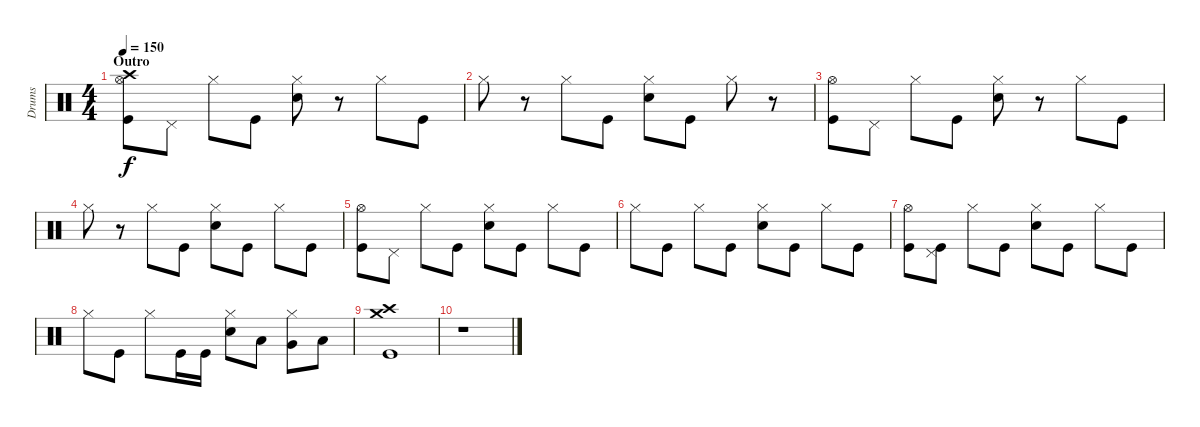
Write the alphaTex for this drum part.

\track ("Drums" "Drums") {instrument percussion}
\staff {score}
\articulation defaults
\ts (4 4)
\section ("" "Outro")
\tempo 150
\clef neutral
\ks c
("Kick (hit)" "Hi-Hat (open)" "Crash high (hit)").8{dy f} "Pedal Hi-Hat (hit)".8 "Hi-Hat (closed)".8 "Kick (hit)".8 ("Electric Snare (hit)" "Hi-Hat (closed)").8 r.8 "Hi-Hat (closed)".8 "Kick (hit)".8 |
"Hi-Hat (closed)".8 r.8 "Hi-Hat (closed)".8 "Kick (hit)".8 ("Electric Snare (hit)" "Hi-Hat (closed)").8 "Kick (hit)".8 "Hi-Hat (closed)".8 r.8 |
("Kick (hit)" "Hi-Hat (open)").8 "Pedal Hi-Hat (hit)".8 "Hi-Hat (closed)".8 "Kick (hit)".8 ("Electric Snare (hit)" "Hi-Hat (closed)").8 r.8 "Hi-Hat (closed)".8 "Kick (hit)".8 |
"Hi-Hat (closed)".8 r.8 "Hi-Hat (closed)".8 "Kick (hit)".8 ("Electric Snare (hit)" "Hi-Hat (closed)").8 "Kick (hit)".8 "Hi-Hat (closed)".8 "Kick (hit)".8 |
("Kick (hit)" "Hi-Hat (open)").8 "Pedal Hi-Hat (hit)".8 "Hi-Hat (closed)".8 "Kick (hit)".8 ("Electric Snare (hit)" "Hi-Hat (closed)").8 "Kick (hit)".8 "Hi-Hat (closed)".8 "Kick (hit)".8 |
"Hi-Hat (closed)".8 "Kick (hit)".8 "Hi-Hat (closed)".8 "Kick (hit)".8 ("Electric Snare (hit)" "Hi-Hat (closed)").8 "Kick (hit)".8 "Hi-Hat (closed)".8 "Kick (hit)".8 |
("Kick (hit)" "Hi-Hat (open)").8 ("Kick (hit)" "Pedal Hi-Hat (hit)").8 "Hi-Hat (closed)".8 "Kick (hit)".8 ("Electric Snare (hit)" "Hi-Hat (closed)").8 "Kick (hit)".8 "Hi-Hat (closed)".8 "Kick (hit)".8 |
"Hi-Hat (closed)".8 "Kick (hit)".8 "Hi-Hat (closed)".8 "Kick (hit)".16 "Kick (hit)".16 ("Electric Snare (hit)" "Hi-Hat (closed)").8 "Low Tom (hit)".8 ("Very Low Tom (hit)" "Hi-Hat (closed)").8 "Low Floor Tom (hit)".8 |
("Kick (hit)" "Crash high (hit)" "Crash medium (hit)").1 |
r.1
